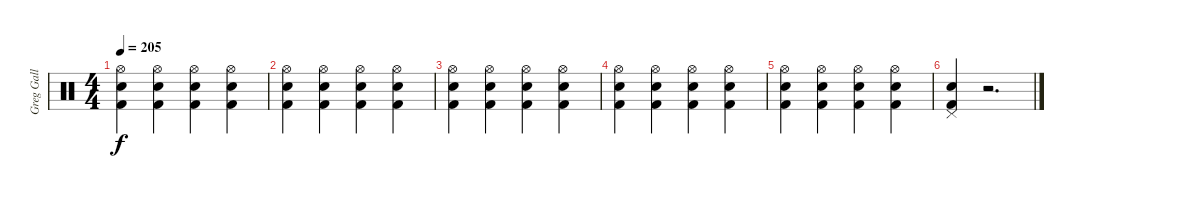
\track ("Greg Gall - Drums" "Greg Gall ") {instrument percussion}
\staff {score}
\articulation defaults
\ts (4 4)
\tempo 205
\clef neutral
\ks c
("Hi-Hat (open)" "Snare (hit) 2" "Kick (hit) 2").4{dy f} ("Hi-Hat (open)" "Snare (hit) 2" "Kick (hit) 2").4 ("Hi-Hat (open)" "Snare (hit) 2" "Kick (hit) 2").4 ("Hi-Hat (open)" "Snare (hit) 2" "Kick (hit) 2").4 |
("Hi-Hat (open)" "Snare (hit) 2" "Kick (hit) 2").4 ("Hi-Hat (open)" "Snare (hit) 2" "Kick (hit) 2").4 ("Hi-Hat (open)" "Snare (hit) 2" "Kick (hit) 2").4 ("Hi-Hat (open)" "Snare (hit) 2" "Kick (hit) 2").4 |
("Hi-Hat (open)" "Snare (hit) 2" "Kick (hit) 2").4 ("Hi-Hat (open)" "Snare (hit) 2" "Kick (hit) 2").4 ("Hi-Hat (open)" "Snare (hit) 2" "Kick (hit) 2").4 ("Hi-Hat (open)" "Snare (hit) 2" "Kick (hit) 2").4 |
("Hi-Hat (open)" "Snare (hit) 2" "Kick (hit) 2").4 ("Hi-Hat (open)" "Snare (hit) 2" "Kick (hit) 2").4 ("Hi-Hat (open)" "Snare (hit) 2" "Kick (hit) 2").4 ("Hi-Hat (open)" "Snare (hit) 2" "Kick (hit) 2").4 |
("Hi-Hat (open)" "Snare (hit) 2" "Kick (hit) 2").4 ("Hi-Hat (open)" "Snare (hit) 2" "Kick (hit) 2").4 ("Hi-Hat (open)" "Snare (hit) 2" "Kick (hit) 2").4 ("Hi-Hat (open)" "Snare (hit) 2" "Kick (hit) 2").4 |
("Pedal Hi-Hat (hit)" "Snare (hit) 2" "Kick (hit) 2").4 r.2{d}
